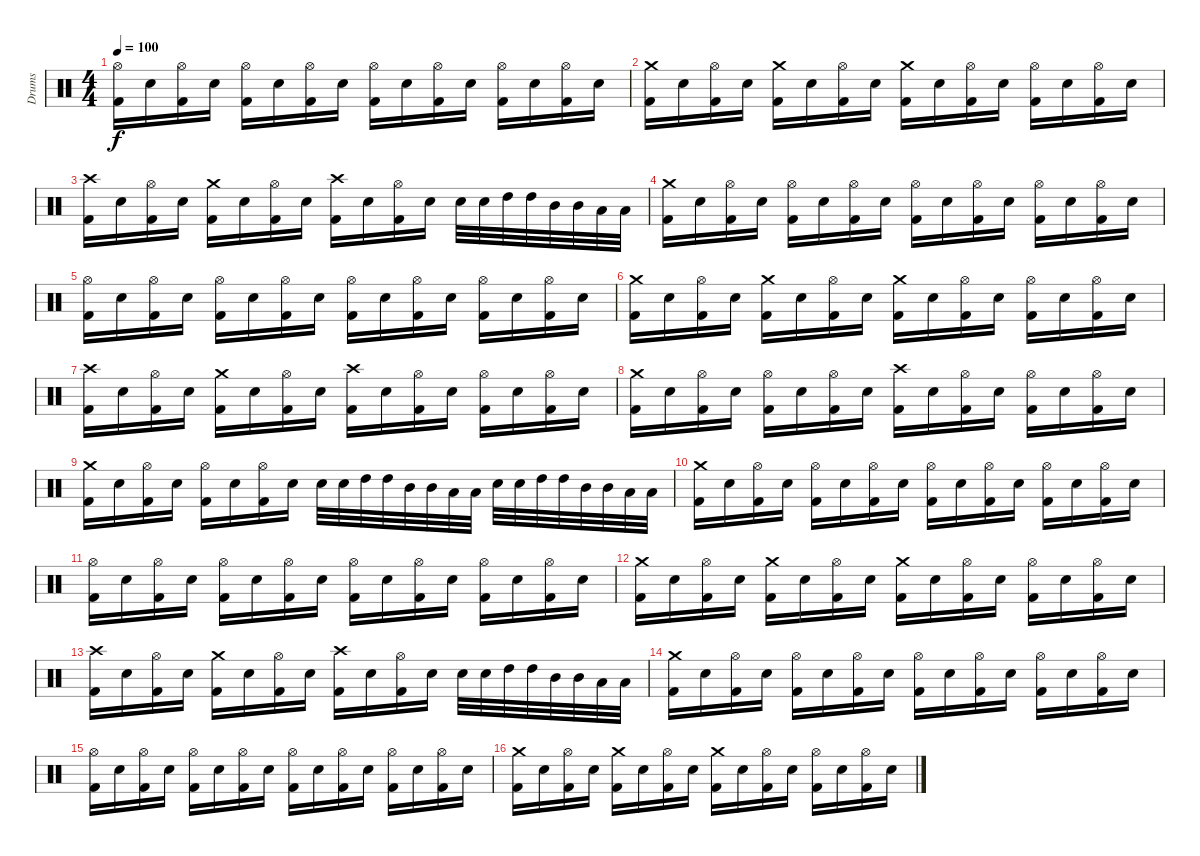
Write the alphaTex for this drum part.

\track ("Drums" "Drums") {instrument percussion}
\staff {score}
\articulation defaults
\ts (4 4)
\tempo 100
\clef neutral
\ks c
("Hi-Hat (open)" "Kick (hit) 2").16{dy f} "Snare (hit) 2".16 ("Hi-Hat (open)" "Kick (hit) 2").16 "Snare (hit) 2".16 ("Hi-Hat (open)" "Kick (hit) 2").16 "Snare (hit) 2".16 ("Hi-Hat (open)" "Kick (hit) 2").16 "Snare (hit) 2".16 ("Hi-Hat (open)" "Kick (hit) 2").16 "Snare (hit) 2".16 ("Hi-Hat (open)" "Kick (hit) 2").16 "Snare (hit) 2".16 ("Hi-Hat (open)" "Kick (hit) 2").16 "Snare (hit) 2".16 ("Hi-Hat (open)" "Kick (hit) 2").16 "Snare (hit) 2".16 |
("Crash medium (hit)" "Kick (hit) 2").16 "Snare (hit) 2".16 ("Hi-Hat (open)" "Kick (hit) 2").16 "Snare (hit) 2".16 ("Crash medium (hit)" "Kick (hit) 2").16 "Snare (hit) 2".16 ("Hi-Hat (open)" "Kick (hit) 2").16 "Snare (hit) 2".16 ("Crash medium (hit)" "Kick (hit) 2").16 "Snare (hit) 2".16 ("Hi-Hat (open)" "Kick (hit) 2").16 "Snare (hit) 2".16 ("Hi-Hat (open)" "Kick (hit) 2").16 "Snare (hit) 2".16 ("Hi-Hat (open)" "Kick (hit) 2").16 "Snare (hit) 2".16 |
("Crash high (hit)" "Kick (hit) 2").16 "Snare (hit) 2".16 ("Hi-Hat (open)" "Kick (hit) 2").16 "Snare (hit) 2".16 ("Crash medium (hit)" "Kick (hit) 2").16 "Snare (hit) 2".16 ("Hi-Hat (open)" "Kick (hit) 2").16 "Snare (hit) 2".16 ("Crash high (hit)" "Kick (hit) 2").16 "Snare (hit) 2".16 ("Hi-Hat (open)" "Kick (hit) 2").16 "Snare (hit) 2".16 "Snare (hit) 2".32 "Snare (hit) 2".32 "High Tom (hit)".32 "High Tom (hit)".32 "Mid Tom (hit)".32 "Mid Tom (hit)".32 "Low Tom (hit)".32 "Low Tom (hit)".32 |
("Crash medium (hit)" "Kick (hit) 2").16 "Snare (hit) 2".16 ("Hi-Hat (open)" "Kick (hit) 2").16 "Snare (hit) 2".16 ("Hi-Hat (open)" "Kick (hit) 2").16 "Snare (hit) 2".16 ("Hi-Hat (open)" "Kick (hit) 2").16 "Snare (hit) 2".16 ("Hi-Hat (open)" "Kick (hit) 2").16 "Snare (hit) 2".16 ("Hi-Hat (open)" "Kick (hit) 2").16 "Snare (hit) 2".16 ("Hi-Hat (open)" "Kick (hit) 2").16 "Snare (hit) 2".16 ("Hi-Hat (open)" "Kick (hit) 2").16 "Snare (hit) 2".16 |
("Hi-Hat (open)" "Kick (hit) 2").16 "Snare (hit) 2".16 ("Hi-Hat (open)" "Kick (hit) 2").16 "Snare (hit) 2".16 ("Hi-Hat (open)" "Kick (hit) 2").16 "Snare (hit) 2".16 ("Hi-Hat (open)" "Kick (hit) 2").16 "Snare (hit) 2".16 ("Hi-Hat (open)" "Kick (hit) 2").16 "Snare (hit) 2".16 ("Hi-Hat (open)" "Kick (hit) 2").16 "Snare (hit) 2".16 ("Hi-Hat (open)" "Kick (hit) 2").16 "Snare (hit) 2".16 ("Hi-Hat (open)" "Kick (hit) 2").16 "Snare (hit) 2".16 |
("Crash medium (hit)" "Kick (hit) 2").16 "Snare (hit) 2".16 ("Hi-Hat (open)" "Kick (hit) 2").16 "Snare (hit) 2".16 ("Crash medium (hit)" "Kick (hit) 2").16 "Snare (hit) 2".16 ("Hi-Hat (open)" "Kick (hit) 2").16 "Snare (hit) 2".16 ("Crash medium (hit)" "Kick (hit) 2").16 "Snare (hit) 2".16 ("Hi-Hat (open)" "Kick (hit) 2").16 "Snare (hit) 2".16 ("Hi-Hat (open)" "Kick (hit) 2").16 "Snare (hit) 2".16 ("Hi-Hat (open)" "Kick (hit) 2").16 "Snare (hit) 2".16 |
("Crash high (hit)" "Kick (hit) 2").16 "Snare (hit) 2".16 ("Hi-Hat (open)" "Kick (hit) 2").16 "Snare (hit) 2".16 ("Crash medium (hit)" "Kick (hit) 2").16 "Snare (hit) 2".16 ("Hi-Hat (open)" "Kick (hit) 2").16 "Snare (hit) 2".16 ("Crash high (hit)" "Kick (hit) 2").16 "Snare (hit) 2".16 ("Hi-Hat (open)" "Kick (hit) 2").16 "Snare (hit) 2".16 ("Hi-Hat (open)" "Kick (hit) 2").16 "Snare (hit) 2".16 ("Hi-Hat (open)" "Kick (hit) 2").16 "Snare (hit) 2".16 |
("Crash medium (hit)" "Kick (hit) 2").16 "Snare (hit) 2".16 ("Hi-Hat (open)" "Kick (hit) 2").16 "Snare (hit) 2".16 ("Hi-Hat (open)" "Kick (hit) 2").16 "Snare (hit) 2".16 ("Hi-Hat (open)" "Kick (hit) 2").16 "Snare (hit) 2".16 ("Crash high (hit)" "Kick (hit) 2").16 "Snare (hit) 2".16 ("Hi-Hat (open)" "Kick (hit) 2").16 "Snare (hit) 2".16 ("Hi-Hat (open)" "Kick (hit) 2").16 "Snare (hit) 2".16 ("Hi-Hat (open)" "Kick (hit) 2").16 "Snare (hit) 2".16 |
("Crash medium (hit)" "Kick (hit) 2").16 "Snare (hit) 2".16 ("Hi-Hat (open)" "Kick (hit) 2").16 "Snare (hit) 2".16 ("Hi-Hat (open)" "Kick (hit) 2").16 "Snare (hit) 2".16 ("Hi-Hat (open)" "Kick (hit) 2").16 "Snare (hit) 2".16 "Snare (hit) 2".32 "Snare (hit) 2".32 "High Tom (hit)".32 "High Tom (hit)".32 "Mid Tom (hit)".32 "Mid Tom (hit)".32 "Low Tom (hit)".32 "Low Tom (hit)".32 "Snare (hit) 2".32 "Snare (hit) 2".32 "High Tom (hit)".32 "High Tom (hit)".32 "Mid Tom (hit)".32 "Mid Tom (hit)".32 "Low Tom (hit)".32 "Low Tom (hit)".32 |
("Crash medium (hit)" "Kick (hit) 2").16 "Snare (hit) 2".16 ("Hi-Hat (open)" "Kick (hit) 2").16 "Snare (hit) 2".16 ("Hi-Hat (open)" "Kick (hit) 2").16 "Snare (hit) 2".16 ("Hi-Hat (open)" "Kick (hit) 2").16 "Snare (hit) 2".16 ("Hi-Hat (open)" "Kick (hit) 2").16 "Snare (hit) 2".16 ("Hi-Hat (open)" "Kick (hit) 2").16 "Snare (hit) 2".16 ("Hi-Hat (open)" "Kick (hit) 2").16 "Snare (hit) 2".16 ("Hi-Hat (open)" "Kick (hit) 2").16 "Snare (hit) 2".16 |
("Hi-Hat (open)" "Kick (hit) 2").16 "Snare (hit) 2".16 ("Hi-Hat (open)" "Kick (hit) 2").16 "Snare (hit) 2".16 ("Hi-Hat (open)" "Kick (hit) 2").16 "Snare (hit) 2".16 ("Hi-Hat (open)" "Kick (hit) 2").16 "Snare (hit) 2".16 ("Hi-Hat (open)" "Kick (hit) 2").16 "Snare (hit) 2".16 ("Hi-Hat (open)" "Kick (hit) 2").16 "Snare (hit) 2".16 ("Hi-Hat (open)" "Kick (hit) 2").16 "Snare (hit) 2".16 ("Hi-Hat (open)" "Kick (hit) 2").16 "Snare (hit) 2".16 |
("Crash medium (hit)" "Kick (hit) 2").16 "Snare (hit) 2".16 ("Hi-Hat (open)" "Kick (hit) 2").16 "Snare (hit) 2".16 ("Crash medium (hit)" "Kick (hit) 2").16 "Snare (hit) 2".16 ("Hi-Hat (open)" "Kick (hit) 2").16 "Snare (hit) 2".16 ("Crash medium (hit)" "Kick (hit) 2").16 "Snare (hit) 2".16 ("Hi-Hat (open)" "Kick (hit) 2").16 "Snare (hit) 2".16 ("Hi-Hat (open)" "Kick (hit) 2").16 "Snare (hit) 2".16 ("Hi-Hat (open)" "Kick (hit) 2").16 "Snare (hit) 2".16 |
("Crash high (hit)" "Kick (hit) 2").16 "Snare (hit) 2".16 ("Hi-Hat (open)" "Kick (hit) 2").16 "Snare (hit) 2".16 ("Crash medium (hit)" "Kick (hit) 2").16 "Snare (hit) 2".16 ("Hi-Hat (open)" "Kick (hit) 2").16 "Snare (hit) 2".16 ("Crash high (hit)" "Kick (hit) 2").16 "Snare (hit) 2".16 ("Hi-Hat (open)" "Kick (hit) 2").16 "Snare (hit) 2".16 "Snare (hit) 2".32 "Snare (hit) 2".32 "High Tom (hit)".32 "High Tom (hit)".32 "Mid Tom (hit)".32 "Mid Tom (hit)".32 "Low Tom (hit)".32 "Low Tom (hit)".32 |
("Crash medium (hit)" "Kick (hit) 2").16 "Snare (hit) 2".16 ("Hi-Hat (open)" "Kick (hit) 2").16 "Snare (hit) 2".16 ("Hi-Hat (open)" "Kick (hit) 2").16 "Snare (hit) 2".16 ("Hi-Hat (open)" "Kick (hit) 2").16 "Snare (hit) 2".16 ("Hi-Hat (open)" "Kick (hit) 2").16 "Snare (hit) 2".16 ("Hi-Hat (open)" "Kick (hit) 2").16 "Snare (hit) 2".16 ("Hi-Hat (open)" "Kick (hit) 2").16 "Snare (hit) 2".16 ("Hi-Hat (open)" "Kick (hit) 2").16 "Snare (hit) 2".16 |
("Hi-Hat (open)" "Kick (hit) 2").16 "Snare (hit) 2".16 ("Hi-Hat (open)" "Kick (hit) 2").16 "Snare (hit) 2".16 ("Hi-Hat (open)" "Kick (hit) 2").16 "Snare (hit) 2".16 ("Hi-Hat (open)" "Kick (hit) 2").16 "Snare (hit) 2".16 ("Hi-Hat (open)" "Kick (hit) 2").16 "Snare (hit) 2".16 ("Hi-Hat (open)" "Kick (hit) 2").16 "Snare (hit) 2".16 ("Hi-Hat (open)" "Kick (hit) 2").16 "Snare (hit) 2".16 ("Hi-Hat (open)" "Kick (hit) 2").16 "Snare (hit) 2".16 |
("Crash medium (hit)" "Kick (hit) 2").16 "Snare (hit) 2".16 ("Hi-Hat (open)" "Kick (hit) 2").16 "Snare (hit) 2".16 ("Crash medium (hit)" "Kick (hit) 2").16 "Snare (hit) 2".16 ("Hi-Hat (open)" "Kick (hit) 2").16 "Snare (hit) 2".16 ("Crash medium (hit)" "Kick (hit) 2").16 "Snare (hit) 2".16 ("Hi-Hat (open)" "Kick (hit) 2").16 "Snare (hit) 2".16 ("Hi-Hat (open)" "Kick (hit) 2").16 "Snare (hit) 2".16 ("Hi-Hat (open)" "Kick (hit) 2").16 "Snare (hit) 2".16
